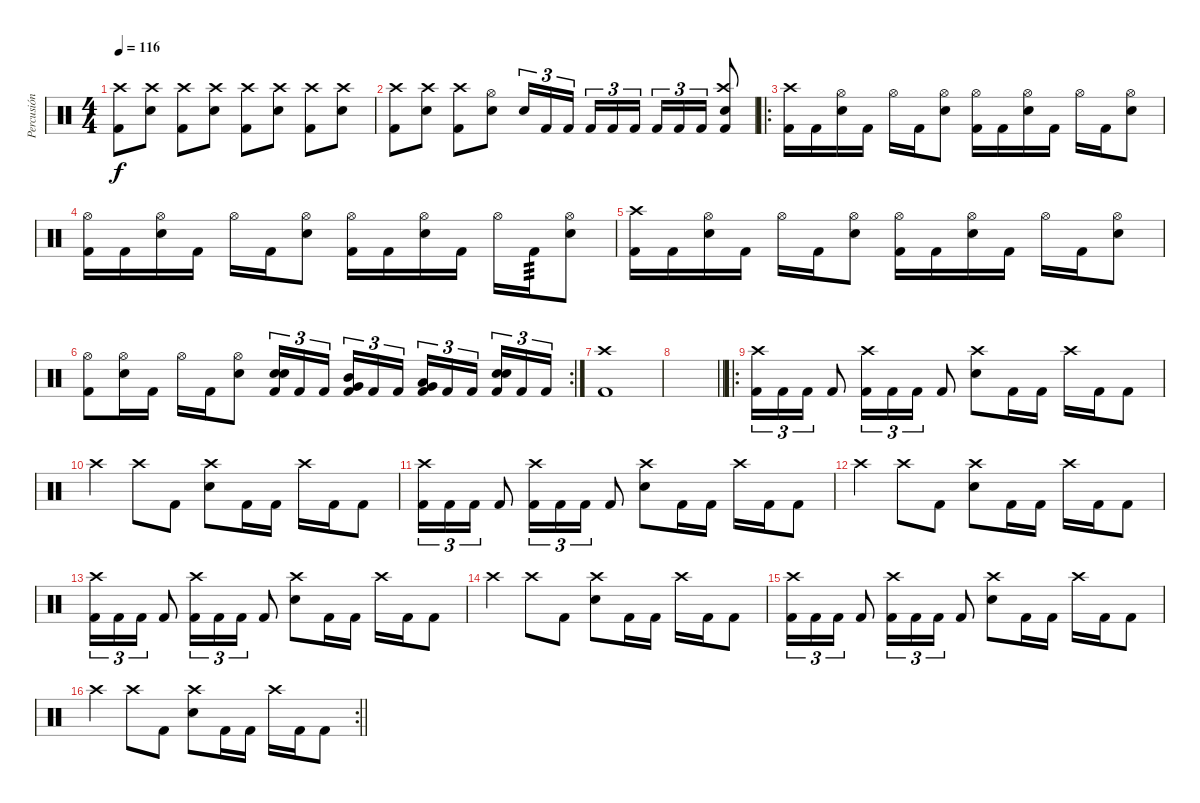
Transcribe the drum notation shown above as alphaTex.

\track ("Percusión" "Percusión") {instrument percussion}
\staff
\articulation defaults
\ts (4 4)
\tempo 116
\clef neutral
\ks c
("Kick (hit) 2" "Crash high (hit)").8{dy f} ("Crash high (hit)" "Electric Snare (hit)").8 ("Kick (hit) 2" "Crash high (hit)").8 ("Crash high (hit)" "Electric Snare (hit)").8 ("Kick (hit) 2" "Crash high (hit)").8 ("Crash high (hit)" "Electric Snare (hit)").8 ("Kick (hit) 2" "Crash high (hit)").8 ("Crash high (hit)" "Electric Snare (hit)").8 |
("Kick (hit) 2" "Crash high (hit)").8 ("Crash high (hit)" "Electric Snare (hit)").8 ("Kick (hit) 2" "Crash high (hit)").8 ("Hi-Hat (open)" "Electric Snare (hit)").8 "Electric Snare (hit)".16{tu (3 2)} "Kick (hit) 2".16{tu (3 2)} "Kick (hit) 2".16{tu (3 2) beam splitsecondary} "Kick (hit) 2".16{tu (3 2)} "Kick (hit) 2".16{tu (3 2)} "Kick (hit) 2".16{tu (3 2)} "Kick (hit) 2".16{tu (3 2)} "Kick (hit) 2".16{tu (3 2)} "Kick (hit) 2".16{tu (3 2)} ("Kick (hit) 2" "Crash high (hit)" "Electric Snare (hit)").8 |
\ro
("Kick (hit) 2" "Crash high (hit)").16 "Kick (hit) 2".16 ("Hi-Hat (open)" "Electric Snare (hit)").16 "Kick (hit) 2".16 "Hi-Hat (open)".16 "Kick (hit) 2".16 ("Hi-Hat (open)" "Electric Snare (hit)").8 ("Kick (hit) 2" "Hi-Hat (open)").16 "Kick (hit) 2".16 ("Hi-Hat (open)" "Electric Snare (hit)").16 "Kick (hit) 2".16 "Hi-Hat (open)".16 "Kick (hit) 2".16 ("Hi-Hat (open)" "Electric Snare (hit)").8 |
("Kick (hit) 2" "Hi-Hat (open)").16 "Kick (hit) 2".16 ("Hi-Hat (open)" "Electric Snare (hit)").16 "Kick (hit) 2".16 "Hi-Hat (open)".16 "Kick (hit) 2".16 ("Hi-Hat (open)" "Electric Snare (hit)").8 ("Kick (hit) 2" "Hi-Hat (open)").16 "Kick (hit) 2".16 ("Hi-Hat (open)" "Electric Snare (hit)").16 "Kick (hit) 2".16 "Hi-Hat (open)".16 "Kick (hit) 2".16{tp 3} ("Hi-Hat (open)" "Electric Snare (hit)").8 |
("Kick (hit) 2" "Crash high (hit)").16 "Kick (hit) 2".16 ("Hi-Hat (open)" "Electric Snare (hit)").16 "Kick (hit) 2".16 "Hi-Hat (open)".16 "Kick (hit) 2".16 ("Hi-Hat (open)" "Electric Snare (hit)").8 ("Kick (hit) 2" "Hi-Hat (open)").16 "Kick (hit) 2".16 ("Hi-Hat (open)" "Electric Snare (hit)").16 "Kick (hit) 2".16 "Hi-Hat (open)".16 "Kick (hit) 2".16 ("Hi-Hat (open)" "Electric Snare (hit)").8 |
\rc 2
("Kick (hit) 2" "Hi-Hat (open)").8 ("Hi-Hat (open)" "Electric Snare (hit)").16 "Kick (hit) 2".16 "Hi-Hat (open)".16 "Kick (hit) 2".16 ("Hi-Hat (open)" "Electric Snare (hit)").8 ("Kick (hit) 2" "Electric Snare (hit)" "Snare (hit) 2").16{tu (3 2)} "Kick (hit) 2".16{tu (3 2)} "Kick (hit) 2".16{tu (3 2) beam splitsecondary} ("Kick (hit) 2" "Mid Tom (hit)" "Very Low Tom (hit)").16{tu (3 2)} "Kick (hit) 2".16{tu (3 2)} "Kick (hit) 2".16{tu (3 2)} ("Kick (hit) 2" "Low Tom (hit)" "Very Low Tom (hit)").16{tu (3 2)} "Kick (hit) 2".16{tu (3 2)} "Kick (hit) 2".16{tu (3 2) beam splitsecondary} ("Kick (hit) 2" "Snare (hit) 2" "Electric Snare (hit)").16{tu (3 2)} "Kick (hit) 2".16{tu (3 2)} "Kick (hit) 2".16{tu (3 2)} |
("Kick (hit) 2" "Crash high (hit)").1 |
\barLineRight lightlight
|
\ro
\section ("" "")
("Kick (hit) 2" "Crash high (hit)").16{tu (3 2)} "Kick (hit) 2".16{tu (3 2)} "Kick (hit) 2".16{tu (3 2)} "Kick (hit) 2".8 ("Kick (hit) 2" "Crash high (hit)").16{tu (3 2)} "Kick (hit) 2".16{tu (3 2)} "Kick (hit) 2".16{tu (3 2)} "Kick (hit) 2".8 ("Crash high (hit)" "Electric Snare (hit)").8 "Kick (hit) 2".16 "Kick (hit) 2".16 "Crash high (hit)".16 "Kick (hit) 2".16 "Kick (hit) 2".8 |
"Crash high (hit)".4 "Crash high (hit)".8 "Kick (hit) 2".8 ("Crash high (hit)" "Electric Snare (hit)").8 "Kick (hit) 2".16 "Kick (hit) 2".16 "Crash high (hit)".16 "Kick (hit) 2".16 "Kick (hit) 2".8 |
("Kick (hit) 2" "Crash high (hit)").16{tu (3 2)} "Kick (hit) 2".16{tu (3 2)} "Kick (hit) 2".16{tu (3 2)} "Kick (hit) 2".8 ("Kick (hit) 2" "Crash high (hit)").16{tu (3 2)} "Kick (hit) 2".16{tu (3 2)} "Kick (hit) 2".16{tu (3 2)} "Kick (hit) 2".8 ("Crash high (hit)" "Electric Snare (hit)").8 "Kick (hit) 2".16 "Kick (hit) 2".16 "Crash high (hit)".16 "Kick (hit) 2".16 "Kick (hit) 2".8 |
"Crash high (hit)".4 "Crash high (hit)".8 "Kick (hit) 2".8 ("Crash high (hit)" "Electric Snare (hit)").8 "Kick (hit) 2".16 "Kick (hit) 2".16 "Crash high (hit)".16 "Kick (hit) 2".16 "Kick (hit) 2".8 |
("Kick (hit) 2" "Crash high (hit)").16{tu (3 2)} "Kick (hit) 2".16{tu (3 2)} "Kick (hit) 2".16{tu (3 2)} "Kick (hit) 2".8 ("Kick (hit) 2" "Crash high (hit)").16{tu (3 2)} "Kick (hit) 2".16{tu (3 2)} "Kick (hit) 2".16{tu (3 2)} "Kick (hit) 2".8 ("Crash high (hit)" "Electric Snare (hit)").8 "Kick (hit) 2".16 "Kick (hit) 2".16 "Crash high (hit)".16 "Kick (hit) 2".16 "Kick (hit) 2".8 |
"Crash high (hit)".4 "Crash high (hit)".8 "Kick (hit) 2".8 ("Crash high (hit)" "Electric Snare (hit)").8 "Kick (hit) 2".16 "Kick (hit) 2".16 "Crash high (hit)".16 "Kick (hit) 2".16 "Kick (hit) 2".8 |
("Kick (hit) 2" "Crash high (hit)").16{tu (3 2)} "Kick (hit) 2".16{tu (3 2)} "Kick (hit) 2".16{tu (3 2)} "Kick (hit) 2".8 ("Kick (hit) 2" "Crash high (hit)").16{tu (3 2)} "Kick (hit) 2".16{tu (3 2)} "Kick (hit) 2".16{tu (3 2)} "Kick (hit) 2".8 ("Crash high (hit)" "Electric Snare (hit)").8 "Kick (hit) 2".16 "Kick (hit) 2".16 "Crash high (hit)".16 "Kick (hit) 2".16 "Kick (hit) 2".8 |
\rc 2
\barLineRight lightlight "Crash high (hit)".4 "Crash high (hit)".8 "Kick (hit) 2".8
("Crash high (hit)" "Electric Snare (hit)").8 "Kick (hit) 2".16 "Kick (hit) 2".16 "Crash high (hit)".16 "Kick (hit) 2".16 "Kick (hit) 2".8
